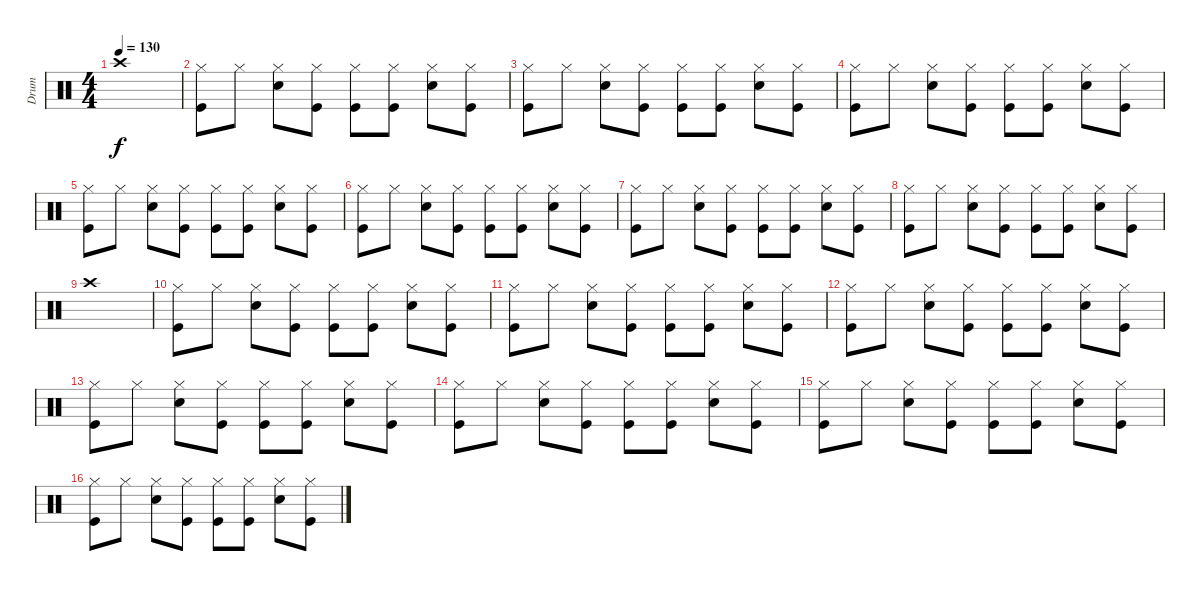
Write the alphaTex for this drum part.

\track ("Drum" "Drum") {instrument percussion}
\staff {score}
\articulation defaults
\ts (4 4)
\tempo 130
\clef neutral
\ks c "Crash high (hit)".1{dy f}
|
("Hi-Hat (closed)" "Kick (hit)").8 "Hi-Hat (closed)".8 ("Hi-Hat (closed)" "Electric Snare (hit)").8 ("Hi-Hat (closed)" "Kick (hit)").8 ("Hi-Hat (closed)" "Kick (hit)").8 ("Hi-Hat (closed)" "Kick (hit)").8 ("Hi-Hat (closed)" "Electric Snare (hit)").8 ("Hi-Hat (closed)" "Kick (hit)").8 |
("Hi-Hat (closed)" "Kick (hit)").8 "Hi-Hat (closed)".8 ("Hi-Hat (closed)" "Electric Snare (hit)").8 ("Hi-Hat (closed)" "Kick (hit)").8 ("Hi-Hat (closed)" "Kick (hit)").8 ("Hi-Hat (closed)" "Kick (hit)").8 ("Hi-Hat (closed)" "Electric Snare (hit)").8 ("Hi-Hat (closed)" "Kick (hit)").8 |
("Hi-Hat (closed)" "Kick (hit)").8 "Hi-Hat (closed)".8 ("Hi-Hat (closed)" "Electric Snare (hit)").8 ("Hi-Hat (closed)" "Kick (hit)").8 ("Hi-Hat (closed)" "Kick (hit)").8 ("Hi-Hat (closed)" "Kick (hit)").8 ("Hi-Hat (closed)" "Electric Snare (hit)").8 ("Hi-Hat (closed)" "Kick (hit)").8 |
("Hi-Hat (closed)" "Kick (hit)").8 "Hi-Hat (closed)".8 ("Hi-Hat (closed)" "Electric Snare (hit)").8 ("Hi-Hat (closed)" "Kick (hit)").8 ("Hi-Hat (closed)" "Kick (hit)").8 ("Hi-Hat (closed)" "Kick (hit)").8 ("Hi-Hat (closed)" "Electric Snare (hit)").8 ("Hi-Hat (closed)" "Kick (hit)").8 |
("Hi-Hat (closed)" "Kick (hit)").8 "Hi-Hat (closed)".8 ("Hi-Hat (closed)" "Electric Snare (hit)").8 ("Hi-Hat (closed)" "Kick (hit)").8 ("Hi-Hat (closed)" "Kick (hit)").8 ("Hi-Hat (closed)" "Kick (hit)").8 ("Hi-Hat (closed)" "Electric Snare (hit)").8 ("Hi-Hat (closed)" "Kick (hit)").8 |
("Hi-Hat (closed)" "Kick (hit)").8 "Hi-Hat (closed)".8 ("Hi-Hat (closed)" "Electric Snare (hit)").8 ("Hi-Hat (closed)" "Kick (hit)").8 ("Hi-Hat (closed)" "Kick (hit)").8 ("Hi-Hat (closed)" "Kick (hit)").8 ("Hi-Hat (closed)" "Electric Snare (hit)").8 ("Hi-Hat (closed)" "Kick (hit)").8 |
("Hi-Hat (closed)" "Kick (hit)").8 "Hi-Hat (closed)".8 ("Hi-Hat (closed)" "Electric Snare (hit)").8 ("Hi-Hat (closed)" "Kick (hit)").8 ("Hi-Hat (closed)" "Kick (hit)").8 ("Hi-Hat (closed)" "Kick (hit)").8 ("Hi-Hat (closed)" "Electric Snare (hit)").8 ("Hi-Hat (closed)" "Kick (hit)").8 |
"Crash high (hit)".1 |
("Hi-Hat (closed)" "Kick (hit)").8 "Hi-Hat (closed)".8 ("Hi-Hat (closed)" "Electric Snare (hit)").8 ("Hi-Hat (closed)" "Kick (hit)").8 ("Hi-Hat (closed)" "Kick (hit)").8 ("Hi-Hat (closed)" "Kick (hit)").8 ("Hi-Hat (closed)" "Electric Snare (hit)").8 ("Hi-Hat (closed)" "Kick (hit)").8 |
("Hi-Hat (closed)" "Kick (hit)").8 "Hi-Hat (closed)".8 ("Hi-Hat (closed)" "Electric Snare (hit)").8 ("Hi-Hat (closed)" "Kick (hit)").8 ("Hi-Hat (closed)" "Kick (hit)").8 ("Hi-Hat (closed)" "Kick (hit)").8 ("Hi-Hat (closed)" "Electric Snare (hit)").8 ("Hi-Hat (closed)" "Kick (hit)").8 |
("Hi-Hat (closed)" "Kick (hit)").8 "Hi-Hat (closed)".8 ("Hi-Hat (closed)" "Electric Snare (hit)").8 ("Hi-Hat (closed)" "Kick (hit)").8 ("Hi-Hat (closed)" "Kick (hit)").8 ("Hi-Hat (closed)" "Kick (hit)").8 ("Hi-Hat (closed)" "Electric Snare (hit)").8 ("Hi-Hat (closed)" "Kick (hit)").8 |
("Hi-Hat (closed)" "Kick (hit)").8 "Hi-Hat (closed)".8 ("Hi-Hat (closed)" "Electric Snare (hit)").8 ("Hi-Hat (closed)" "Kick (hit)").8 ("Hi-Hat (closed)" "Kick (hit)").8 ("Hi-Hat (closed)" "Kick (hit)").8 ("Hi-Hat (closed)" "Electric Snare (hit)").8 ("Hi-Hat (closed)" "Kick (hit)").8 |
("Hi-Hat (closed)" "Kick (hit)").8 "Hi-Hat (closed)".8 ("Hi-Hat (closed)" "Electric Snare (hit)").8 ("Hi-Hat (closed)" "Kick (hit)").8 ("Hi-Hat (closed)" "Kick (hit)").8 ("Hi-Hat (closed)" "Kick (hit)").8 ("Hi-Hat (closed)" "Electric Snare (hit)").8 ("Hi-Hat (closed)" "Kick (hit)").8 |
("Hi-Hat (closed)" "Kick (hit)").8 "Hi-Hat (closed)".8 ("Hi-Hat (closed)" "Electric Snare (hit)").8 ("Hi-Hat (closed)" "Kick (hit)").8 ("Hi-Hat (closed)" "Kick (hit)").8 ("Hi-Hat (closed)" "Kick (hit)").8 ("Hi-Hat (closed)" "Electric Snare (hit)").8 ("Hi-Hat (closed)" "Kick (hit)").8 |
("Hi-Hat (closed)" "Kick (hit)").8 "Hi-Hat (closed)".8 ("Hi-Hat (closed)" "Electric Snare (hit)").8 ("Hi-Hat (closed)" "Kick (hit)").8 ("Hi-Hat (closed)" "Kick (hit)").8 ("Hi-Hat (closed)" "Kick (hit)").8 ("Hi-Hat (closed)" "Electric Snare (hit)").8 ("Hi-Hat (closed)" "Kick (hit)").8
